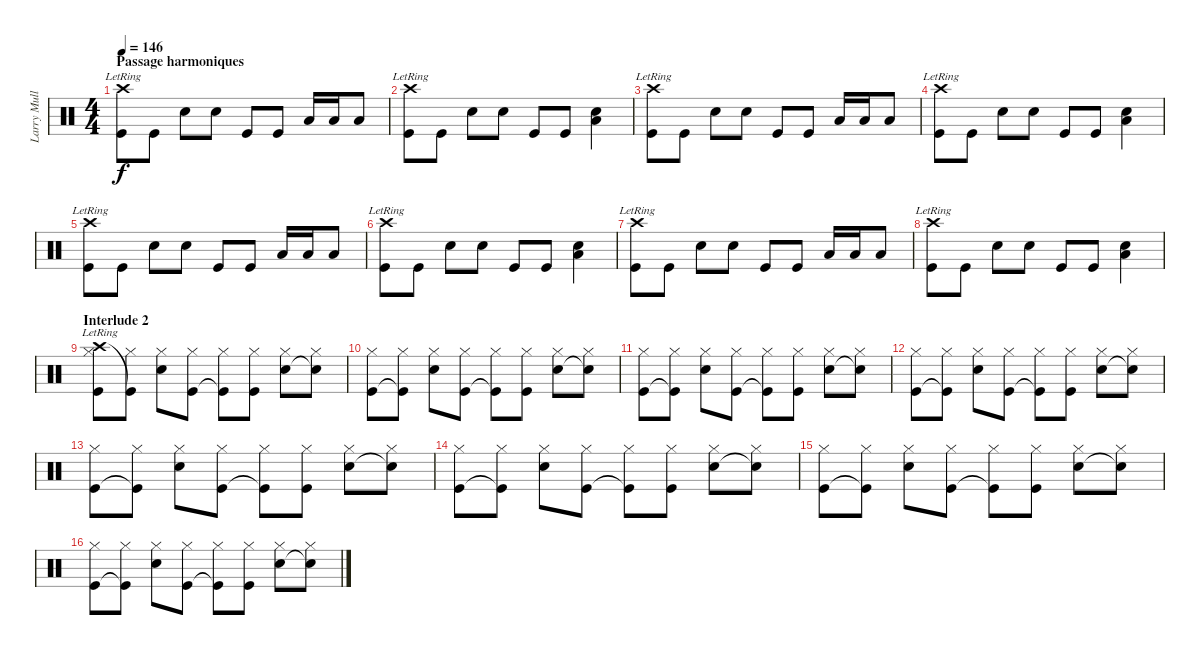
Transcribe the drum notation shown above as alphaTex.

\track ("Larry Mullen" "Larry Mull") {instrument percussion}
\staff {score}
\articulation defaults
\ts (4 4)
\section ("" "Passage harmoniques")
\tempo 146
\clef neutral
\ks c
("Crash high (hit)"{lr} "Kick (hit)").8{dy f} "Kick (hit)".8 "Snare (hit) 2".8 "Snare (hit) 2".8 "Kick (hit)".8 "Kick (hit)".8 "Low Tom (hit)".16 "Low Tom (hit)".16 "Low Tom (hit)".8 |
("Crash high (hit)"{lr} "Kick (hit)").8 "Kick (hit)".8 "Snare (hit) 2".8 "Snare (hit) 2".8 "Kick (hit)".8 "Kick (hit)".8 ("Low Tom (hit)" "Snare (hit) 2").4 |
("Crash high (hit)"{lr} "Kick (hit)").8 "Kick (hit)".8 "Snare (hit) 2".8 "Snare (hit) 2".8 "Kick (hit)".8 "Kick (hit)".8 "Low Tom (hit)".16 "Low Tom (hit)".16 "Low Tom (hit)".8 |
("Crash high (hit)"{lr} "Kick (hit)").8 "Kick (hit)".8 "Snare (hit) 2".8 "Snare (hit) 2".8 "Kick (hit)".8 "Kick (hit)".8 ("Low Tom (hit)" "Snare (hit) 2").4 |
("Crash high (hit)"{lr} "Kick (hit)").8 "Kick (hit)".8 "Snare (hit) 2".8 "Snare (hit) 2".8 "Kick (hit)".8 "Kick (hit)".8 "Low Tom (hit)".16 "Low Tom (hit)".16 "Low Tom (hit)".8 |
("Crash high (hit)"{lr} "Kick (hit)").8 "Kick (hit)".8 "Snare (hit) 2".8 "Snare (hit) 2".8 "Kick (hit)".8 "Kick (hit)".8 ("Low Tom (hit)" "Snare (hit) 2").4 |
("Crash high (hit)"{lr} "Kick (hit)").8 "Kick (hit)".8 "Snare (hit) 2".8 "Snare (hit) 2".8 "Kick (hit)".8 "Kick (hit)".8 "Low Tom (hit)".16 "Low Tom (hit)".16 "Low Tom (hit)".8 |
("Crash high (hit)"{lr} "Kick (hit)").8 "Kick (hit)".8 "Snare (hit) 2".8 "Snare (hit) 2".8 "Kick (hit)".8 "Kick (hit)".8 ("Low Tom (hit)" "Snare (hit) 2").4 |
\section ("" "Interlude 2")
("Hi-Hat (closed)" "Crash high (hit)"{lr} "Kick (hit)").8 ("Hi-Hat (closed)" "Kick (hit)"{t}).8 ("Hi-Hat (closed)" "Snare (hit) 2").8 ("Hi-Hat (closed)" "Kick (hit)").8 ("Hi-Hat (closed)" "Kick (hit)"{t}).8 ("Hi-Hat (closed)" "Kick (hit)").8 ("Hi-Hat (closed)" "Snare (hit) 2").8 ("Hi-Hat (closed)" "Snare (hit) 2"{t}).8 |
("Hi-Hat (closed)" "Kick (hit)").8 ("Hi-Hat (closed)" "Kick (hit)"{t}).8 ("Hi-Hat (closed)" "Snare (hit) 2").8 ("Hi-Hat (closed)" "Kick (hit)").8 ("Hi-Hat (closed)" "Kick (hit)"{t}).8 ("Hi-Hat (closed)" "Kick (hit)").8 ("Hi-Hat (closed)" "Snare (hit) 2").8 ("Hi-Hat (closed)" "Snare (hit) 2"{t}).8 |
("Hi-Hat (closed)" "Kick (hit)").8 ("Hi-Hat (closed)" "Kick (hit)"{t}).8 ("Hi-Hat (closed)" "Snare (hit) 2").8 ("Hi-Hat (closed)" "Kick (hit)").8 ("Hi-Hat (closed)" "Kick (hit)"{t}).8 ("Hi-Hat (closed)" "Kick (hit)").8 ("Hi-Hat (closed)" "Snare (hit) 2").8 ("Hi-Hat (closed)" "Snare (hit) 2"{t}).8 |
("Hi-Hat (closed)" "Kick (hit)").8 ("Hi-Hat (closed)" "Kick (hit)"{t}).8 ("Hi-Hat (closed)" "Snare (hit) 2").8 ("Hi-Hat (closed)" "Kick (hit)").8 ("Hi-Hat (closed)" "Kick (hit)"{t}).8 ("Hi-Hat (closed)" "Kick (hit)").8 ("Hi-Hat (closed)" "Snare (hit) 2").8 ("Hi-Hat (closed)" "Snare (hit) 2"{t}).8 |
("Hi-Hat (closed)" "Kick (hit)").8 ("Hi-Hat (closed)" "Kick (hit)"{t}).8 ("Hi-Hat (closed)" "Snare (hit) 2").8 ("Hi-Hat (closed)" "Kick (hit)").8 ("Hi-Hat (closed)" "Kick (hit)"{t}).8 ("Hi-Hat (closed)" "Kick (hit)").8 ("Hi-Hat (closed)" "Snare (hit) 2").8 ("Hi-Hat (closed)" "Snare (hit) 2"{t}).8 |
("Hi-Hat (closed)" "Kick (hit)").8 ("Hi-Hat (closed)" "Kick (hit)"{t}).8 ("Hi-Hat (closed)" "Snare (hit) 2").8 ("Hi-Hat (closed)" "Kick (hit)").8 ("Hi-Hat (closed)" "Kick (hit)"{t}).8 ("Hi-Hat (closed)" "Kick (hit)").8 ("Hi-Hat (closed)" "Snare (hit) 2").8 ("Hi-Hat (closed)" "Snare (hit) 2"{t}).8 |
("Hi-Hat (closed)" "Kick (hit)").8 ("Hi-Hat (closed)" "Kick (hit)"{t}).8 ("Hi-Hat (closed)" "Snare (hit) 2").8 ("Hi-Hat (closed)" "Kick (hit)").8 ("Hi-Hat (closed)" "Kick (hit)"{t}).8 ("Hi-Hat (closed)" "Kick (hit)").8 ("Hi-Hat (closed)" "Snare (hit) 2").8 ("Hi-Hat (closed)" "Snare (hit) 2"{t}).8 |
("Hi-Hat (closed)" "Kick (hit)").8 ("Hi-Hat (closed)" "Kick (hit)"{t}).8 ("Hi-Hat (closed)" "Snare (hit) 2").8 ("Hi-Hat (closed)" "Kick (hit)").8 ("Hi-Hat (closed)" "Kick (hit)"{t}).8 ("Hi-Hat (closed)" "Kick (hit)").8 ("Hi-Hat (closed)" "Snare (hit) 2").8 ("Hi-Hat (closed)" "Snare (hit) 2"{t}).8
